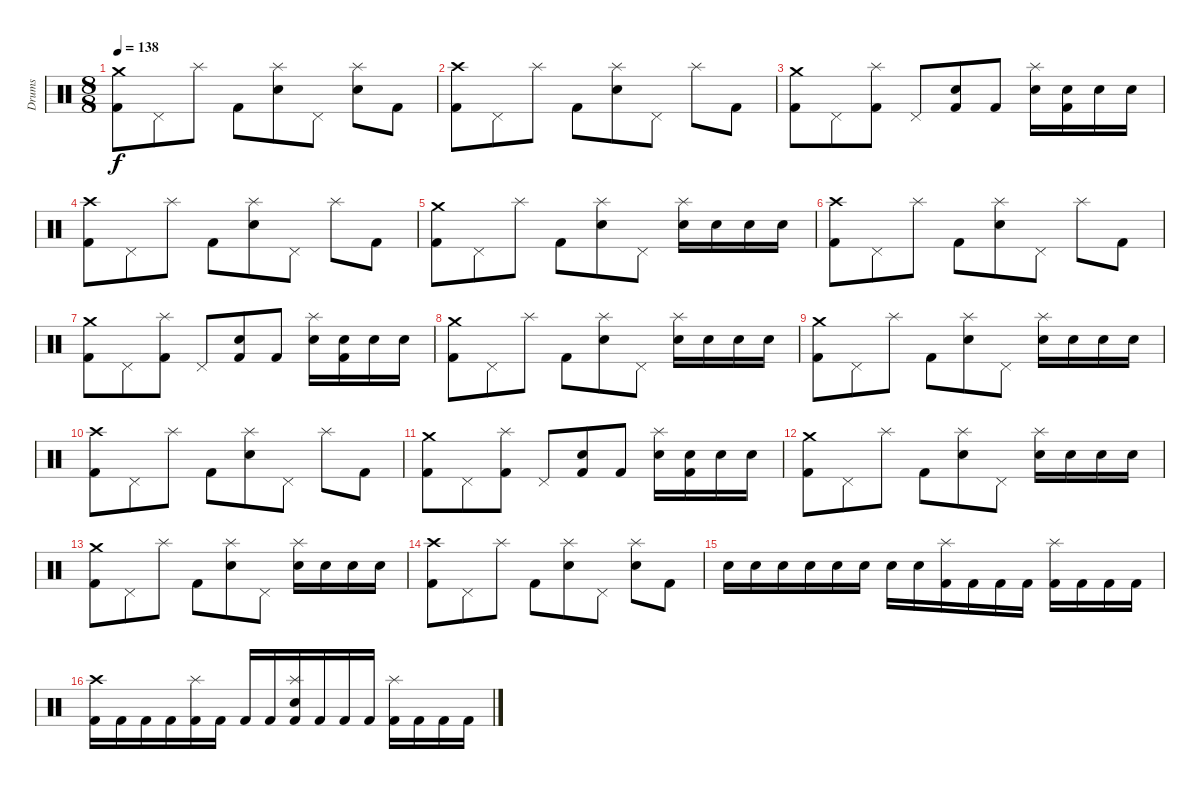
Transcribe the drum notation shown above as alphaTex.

\track ("Drums" "Drums") {instrument percussion}
\staff {score}
\articulation defaults
\ts (8 8)
\tempo 138
\clef neutral
\ks c
("Crash medium (hit)" "Kick (hit) 2").8{dy f} "Pedal Hi-Hat (hit)".8 "Splash (hit)".8 "Kick (hit) 2".8 ("Splash (hit)" "Snare (hit) 2").8 "Pedal Hi-Hat (hit)".8 ("Splash (hit)" "Snare (hit) 2").8 "Kick (hit) 2".8 |
("Crash high (hit)" "Kick (hit) 2").8 "Pedal Hi-Hat (hit)".8 "Splash (hit)".8 "Kick (hit) 2".8 ("Splash (hit)" "Snare (hit) 2").8 "Pedal Hi-Hat (hit)".8 "Splash (hit)".8 "Kick (hit) 2".8 |
("Crash medium (hit)" "Kick (hit) 2").8 "Pedal Hi-Hat (hit)".8 ("Splash (hit)" "Kick (hit) 2").8 "Pedal Hi-Hat (hit)".8 ("Snare (hit) 2" "Kick (hit) 2").8 "Kick (hit) 2".8 ("Splash (hit)" "Snare (hit) 2").16 ("Snare (hit) 2" "Kick (hit) 2").16 "Snare (hit) 2".16 "Snare (hit) 2".16 |
("Crash high (hit)" "Kick (hit) 2").8 "Pedal Hi-Hat (hit)".8 "Splash (hit)".8 "Kick (hit) 2".8 ("Splash (hit)" "Snare (hit) 2").8 "Pedal Hi-Hat (hit)".8 "Splash (hit)".8 "Kick (hit) 2".8 |
("Crash medium (hit)" "Kick (hit) 2").8 "Pedal Hi-Hat (hit)".8 "Splash (hit)".8 "Kick (hit) 2".8 ("Splash (hit)" "Snare (hit) 2").8 "Pedal Hi-Hat (hit)".8 ("Splash (hit)" "Snare (hit) 2").16 "Snare (hit) 2".16 "Snare (hit) 2".16 "Snare (hit) 2".16 |
("Crash high (hit)" "Kick (hit) 2").8 "Pedal Hi-Hat (hit)".8 "Splash (hit)".8 "Kick (hit) 2".8 ("Splash (hit)" "Snare (hit) 2").8 "Pedal Hi-Hat (hit)".8 "Splash (hit)".8 "Kick (hit) 2".8 |
("Crash medium (hit)" "Kick (hit) 2").8 "Pedal Hi-Hat (hit)".8 ("Splash (hit)" "Kick (hit) 2").8 "Pedal Hi-Hat (hit)".8 ("Snare (hit) 2" "Kick (hit) 2").8 "Kick (hit) 2".8 ("Splash (hit)" "Snare (hit) 2").16 ("Snare (hit) 2" "Kick (hit) 2").16 "Snare (hit) 2".16 "Snare (hit) 2".16 |
("Crash medium (hit)" "Kick (hit) 2").8 "Pedal Hi-Hat (hit)".8 "Splash (hit)".8 "Kick (hit) 2".8 ("Splash (hit)" "Snare (hit) 2").8 "Pedal Hi-Hat (hit)".8 ("Splash (hit)" "Snare (hit) 2").16 "Snare (hit) 2".16 "Snare (hit) 2".16 "Snare (hit) 2".16 |
("Crash medium (hit)" "Kick (hit) 2").8 "Pedal Hi-Hat (hit)".8 "Splash (hit)".8 "Kick (hit) 2".8 ("Splash (hit)" "Snare (hit) 2").8 "Pedal Hi-Hat (hit)".8 ("Splash (hit)" "Snare (hit) 2").16 "Snare (hit) 2".16 "Snare (hit) 2".16 "Snare (hit) 2".16 |
("Crash high (hit)" "Kick (hit) 2").8 "Pedal Hi-Hat (hit)".8 "Splash (hit)".8 "Kick (hit) 2".8 ("Splash (hit)" "Snare (hit) 2").8 "Pedal Hi-Hat (hit)".8 "Splash (hit)".8 "Kick (hit) 2".8 |
("Crash medium (hit)" "Kick (hit) 2").8 "Pedal Hi-Hat (hit)".8 ("Splash (hit)" "Kick (hit) 2").8 "Pedal Hi-Hat (hit)".8 ("Snare (hit) 2" "Kick (hit) 2").8 "Kick (hit) 2".8 ("Splash (hit)" "Snare (hit) 2").16 ("Snare (hit) 2" "Kick (hit) 2").16 "Snare (hit) 2".16 "Snare (hit) 2".16 |
("Crash medium (hit)" "Kick (hit) 2").8 "Pedal Hi-Hat (hit)".8 "Splash (hit)".8 "Kick (hit) 2".8 ("Splash (hit)" "Snare (hit) 2").8 "Pedal Hi-Hat (hit)".8 ("Splash (hit)" "Snare (hit) 2").16 "Snare (hit) 2".16 "Snare (hit) 2".16 "Snare (hit) 2".16 |
("Crash medium (hit)" "Kick (hit) 2").8 "Pedal Hi-Hat (hit)".8 "Splash (hit)".8 "Kick (hit) 2".8 ("Splash (hit)" "Snare (hit) 2").8 "Pedal Hi-Hat (hit)".8 ("Splash (hit)" "Snare (hit) 2").16 "Snare (hit) 2".16 "Snare (hit) 2".16 "Snare (hit) 2".16 |
("Crash high (hit)" "Kick (hit) 2").8 "Pedal Hi-Hat (hit)".8 "Splash (hit)".8 "Kick (hit) 2".8 ("Splash (hit)" "Snare (hit) 2").8 "Pedal Hi-Hat (hit)".8 ("Splash (hit)" "Snare (hit) 2").8 "Kick (hit) 2".8 |
"Snare (hit) 2".16 "Snare (hit) 2".16 "Snare (hit) 2".16 "Snare (hit) 2".16 "Snare (hit) 2".16 "Snare (hit) 2".16 "Snare (hit) 2".16 "Snare (hit) 2".16 ("Splash (hit)" "Kick (hit) 2").16 "Kick (hit) 2".16 "Kick (hit) 2".16 "Kick (hit) 2".16 ("Splash (hit)" "Kick (hit) 2").16 "Kick (hit) 2".16 "Kick (hit) 2".16 "Kick (hit) 2".16 |
("Crash high (hit)" "Kick (hit) 2").16 "Kick (hit) 2".16 "Kick (hit) 2".16 "Kick (hit) 2".16 ("Splash (hit)" "Kick (hit) 2").16 "Kick (hit) 2".16 "Kick (hit) 2".16 "Kick (hit) 2".16 ("Splash (hit)" "Snare (hit) 2" "Kick (hit) 2").16 "Kick (hit) 2".16 "Kick (hit) 2".16 "Kick (hit) 2".16 ("Splash (hit)" "Kick (hit) 2").16 "Kick (hit) 2".16 "Kick (hit) 2".16 "Kick (hit) 2".16
